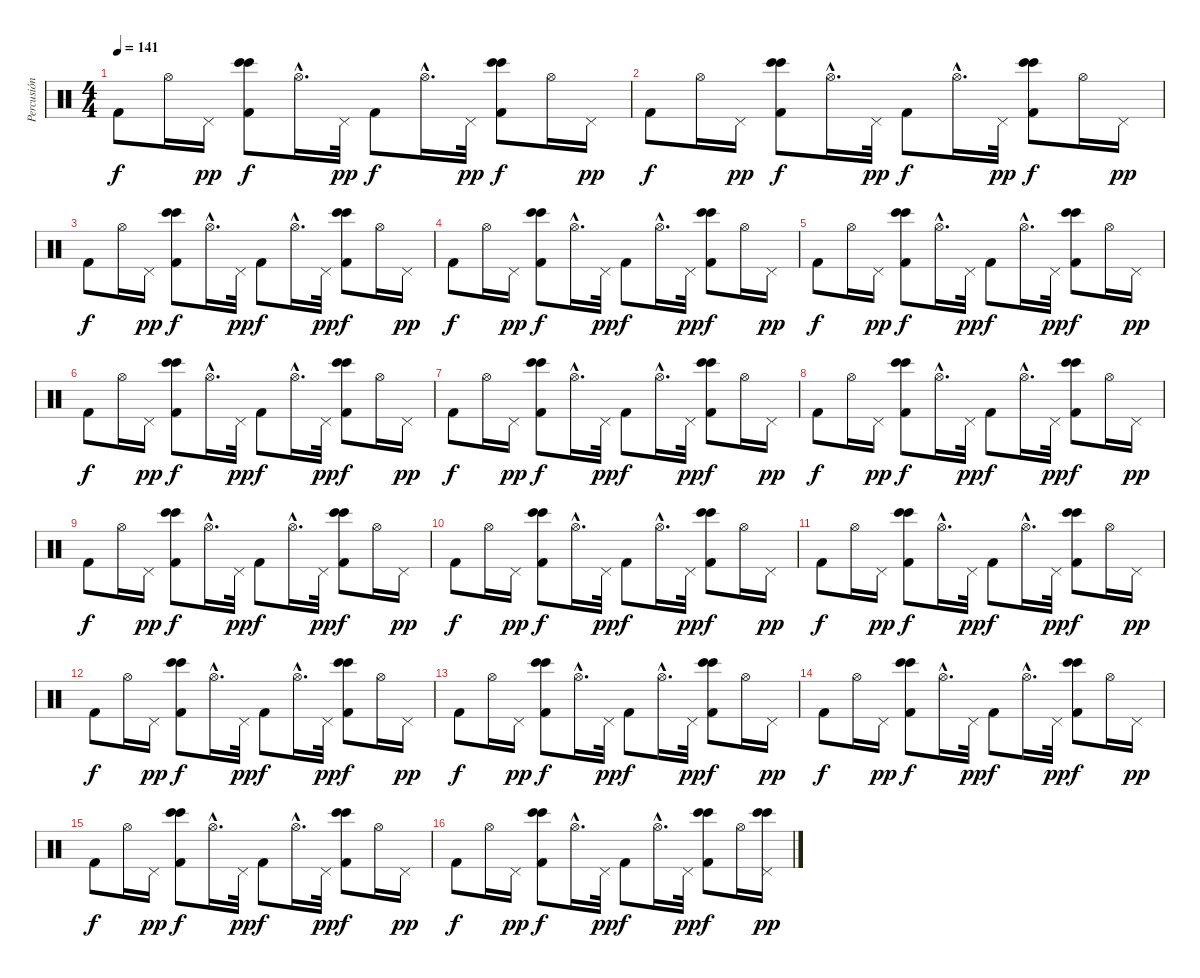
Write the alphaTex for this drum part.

\track ("Percusión" "Percusión") {instrument percussion}
\staff {score}
\articulation defaults
\ts (4 4)
\tempo 141
\clef neutral
\ks c "Kick (hit) 2".8{dy f} "Hi-Hat (open)".16 "Pedal Hi-Hat (hit)".16{dy pp}
("Bongo High (hit)" "Bongo High (hit)" "Kick (hit) 2").8{dy f} "Hi-Hat (open)"{hac}.16{d} "Pedal Hi-Hat (hit)".32{dy pp} "Kick (hit) 2".8{dy f} "Hi-Hat (open)"{hac}.16{d} "Pedal Hi-Hat (hit)".32{dy pp} ("Bongo High (hit)" "Bongo High (hit)" "Kick (hit) 2").8{dy f} "Hi-Hat (open)".16 "Pedal Hi-Hat (hit)".16{dy pp} |
"Kick (hit) 2".8{dy f} "Hi-Hat (open)".16 "Pedal Hi-Hat (hit)".16{dy pp} ("Bongo High (hit)" "Bongo High (hit)" "Kick (hit) 2").8{dy f} "Hi-Hat (open)"{hac}.16{d} "Pedal Hi-Hat (hit)".32{dy pp} "Kick (hit) 2".8{dy f} "Hi-Hat (open)"{hac}.16{d} "Pedal Hi-Hat (hit)".32{dy pp} ("Bongo High (hit)" "Bongo High (hit)" "Kick (hit) 2").8{dy f} "Hi-Hat (open)".16 "Pedal Hi-Hat (hit)".16{dy pp} |
"Kick (hit) 2".8{dy f} "Hi-Hat (open)".16 "Pedal Hi-Hat (hit)".16{dy pp} ("Bongo High (hit)" "Bongo High (hit)" "Kick (hit) 2").8{dy f} "Hi-Hat (open)"{hac}.16{d} "Pedal Hi-Hat (hit)".32{dy pp} "Kick (hit) 2".8{dy f} "Hi-Hat (open)"{hac}.16{d} "Pedal Hi-Hat (hit)".32{dy pp} ("Bongo High (hit)" "Bongo High (hit)" "Kick (hit) 2").8{dy f} "Hi-Hat (open)".16 "Pedal Hi-Hat (hit)".16{dy pp} |
"Kick (hit) 2".8{dy f} "Hi-Hat (open)".16 "Pedal Hi-Hat (hit)".16{dy pp} ("Bongo High (hit)" "Bongo High (hit)" "Kick (hit) 2").8{dy f} "Hi-Hat (open)"{hac}.16{d} "Pedal Hi-Hat (hit)".32{dy pp} "Kick (hit) 2".8{dy f} "Hi-Hat (open)"{hac}.16{d} "Pedal Hi-Hat (hit)".32{dy pp} ("Bongo High (hit)" "Bongo High (hit)" "Kick (hit) 2").8{dy f} "Hi-Hat (open)".16 "Pedal Hi-Hat (hit)".16{dy pp} |
"Kick (hit) 2".8{dy f} "Hi-Hat (open)".16 "Pedal Hi-Hat (hit)".16{dy pp} ("Bongo High (hit)" "Bongo High (hit)" "Kick (hit) 2").8{dy f} "Hi-Hat (open)"{hac}.16{d} "Pedal Hi-Hat (hit)".32{dy pp} "Kick (hit) 2".8{dy f} "Hi-Hat (open)"{hac}.16{d} "Pedal Hi-Hat (hit)".32{dy pp} ("Bongo High (hit)" "Bongo High (hit)" "Kick (hit) 2").8{dy f} "Hi-Hat (open)".16 "Pedal Hi-Hat (hit)".16{dy pp} |
"Kick (hit) 2".8{dy f} "Hi-Hat (open)".16 "Pedal Hi-Hat (hit)".16{dy pp} ("Bongo High (hit)" "Bongo High (hit)" "Kick (hit) 2").8{dy f} "Hi-Hat (open)"{hac}.16{d} "Pedal Hi-Hat (hit)".32{dy pp} "Kick (hit) 2".8{dy f} "Hi-Hat (open)"{hac}.16{d} "Pedal Hi-Hat (hit)".32{dy pp} ("Bongo High (hit)" "Bongo High (hit)" "Kick (hit) 2").8{dy f} "Hi-Hat (open)".16 "Pedal Hi-Hat (hit)".16{dy pp} |
"Kick (hit) 2".8{dy f} "Hi-Hat (open)".16 "Pedal Hi-Hat (hit)".16{dy pp} ("Bongo High (hit)" "Bongo High (hit)" "Kick (hit) 2").8{dy f} "Hi-Hat (open)"{hac}.16{d} "Pedal Hi-Hat (hit)".32{dy pp} "Kick (hit) 2".8{dy f} "Hi-Hat (open)"{hac}.16{d} "Pedal Hi-Hat (hit)".32{dy pp} ("Bongo High (hit)" "Bongo High (hit)" "Kick (hit) 2").8{dy f} "Hi-Hat (open)".16 "Pedal Hi-Hat (hit)".16{dy pp} |
"Kick (hit) 2".8{dy f} "Hi-Hat (open)".16 "Pedal Hi-Hat (hit)".16{dy pp} ("Bongo High (hit)" "Bongo High (hit)" "Kick (hit) 2").8{dy f} "Hi-Hat (open)"{hac}.16{d} "Pedal Hi-Hat (hit)".32{dy pp} "Kick (hit) 2".8{dy f} "Hi-Hat (open)"{hac}.16{d} "Pedal Hi-Hat (hit)".32{dy pp} ("Bongo High (hit)" "Bongo High (hit)" "Kick (hit) 2").8{dy f} "Hi-Hat (open)".16 "Pedal Hi-Hat (hit)".16{dy pp} |
"Kick (hit) 2".8{dy f} "Hi-Hat (open)".16 "Pedal Hi-Hat (hit)".16{dy pp} ("Bongo High (hit)" "Bongo High (hit)" "Kick (hit) 2").8{dy f} "Hi-Hat (open)"{hac}.16{d} "Pedal Hi-Hat (hit)".32{dy pp} "Kick (hit) 2".8{dy f} "Hi-Hat (open)"{hac}.16{d} "Pedal Hi-Hat (hit)".32{dy pp} ("Bongo High (hit)" "Bongo High (hit)" "Kick (hit) 2").8{dy f} "Hi-Hat (open)".16 "Pedal Hi-Hat (hit)".16{dy pp} |
"Kick (hit) 2".8{dy f} "Hi-Hat (open)".16 "Pedal Hi-Hat (hit)".16{dy pp} ("Bongo High (hit)" "Bongo High (hit)" "Kick (hit) 2").8{dy f} "Hi-Hat (open)"{hac}.16{d} "Pedal Hi-Hat (hit)".32{dy pp} "Kick (hit) 2".8{dy f} "Hi-Hat (open)"{hac}.16{d} "Pedal Hi-Hat (hit)".32{dy pp} ("Bongo High (hit)" "Bongo High (hit)" "Kick (hit) 2").8{dy f} "Hi-Hat (open)".16 "Pedal Hi-Hat (hit)".16{dy pp} |
"Kick (hit) 2".8{dy f} "Hi-Hat (open)".16 "Pedal Hi-Hat (hit)".16{dy pp} ("Bongo High (hit)" "Bongo High (hit)" "Kick (hit) 2").8{dy f} "Hi-Hat (open)"{hac}.16{d} "Pedal Hi-Hat (hit)".32{dy pp} "Kick (hit) 2".8{dy f} "Hi-Hat (open)"{hac}.16{d} "Pedal Hi-Hat (hit)".32{dy pp} ("Bongo High (hit)" "Bongo High (hit)" "Kick (hit) 2").8{dy f} "Hi-Hat (open)".16 "Pedal Hi-Hat (hit)".16{dy pp} |
"Kick (hit) 2".8{dy f} "Hi-Hat (open)".16 "Pedal Hi-Hat (hit)".16{dy pp} ("Bongo High (hit)" "Bongo High (hit)" "Kick (hit) 2").8{dy f} "Hi-Hat (open)"{hac}.16{d} "Pedal Hi-Hat (hit)".32{dy pp} "Kick (hit) 2".8{dy f} "Hi-Hat (open)"{hac}.16{d} "Pedal Hi-Hat (hit)".32{dy pp} ("Bongo High (hit)" "Bongo High (hit)" "Kick (hit) 2").8{dy f} "Hi-Hat (open)".16 "Pedal Hi-Hat (hit)".16{dy pp} |
"Kick (hit) 2".8{dy f} "Hi-Hat (open)".16 "Pedal Hi-Hat (hit)".16{dy pp} ("Bongo High (hit)" "Bongo High (hit)" "Kick (hit) 2").8{dy f} "Hi-Hat (open)"{hac}.16{d} "Pedal Hi-Hat (hit)".32{dy pp} "Kick (hit) 2".8{dy f} "Hi-Hat (open)"{hac}.16{d} "Pedal Hi-Hat (hit)".32{dy pp} ("Bongo High (hit)" "Bongo High (hit)" "Kick (hit) 2").8{dy f} "Hi-Hat (open)".16 "Pedal Hi-Hat (hit)".16{dy pp} |
"Kick (hit) 2".8{dy f} "Hi-Hat (open)".16 "Pedal Hi-Hat (hit)".16{dy pp} ("Bongo High (hit)" "Bongo High (hit)" "Kick (hit) 2").8{dy f} "Hi-Hat (open)"{hac}.16{d} "Pedal Hi-Hat (hit)".32{dy pp} "Kick (hit) 2".8{dy f} "Hi-Hat (open)"{hac}.16{d} "Pedal Hi-Hat (hit)".32{dy pp} ("Bongo High (hit)" "Bongo High (hit)" "Kick (hit) 2").8{dy f} "Hi-Hat (open)".16 "Pedal Hi-Hat (hit)".16{dy pp} |
"Kick (hit) 2".8{dy f} "Hi-Hat (open)".16 "Pedal Hi-Hat (hit)".16{dy pp} ("Bongo High (hit)" "Bongo High (hit)" "Kick (hit) 2").8{dy f} "Hi-Hat (open)"{hac}.16{d} "Pedal Hi-Hat (hit)".32{dy pp} "Kick (hit) 2".8{dy f} "Hi-Hat (open)"{hac}.16{d} "Pedal Hi-Hat (hit)".32{dy pp} ("Bongo High (hit)" "Bongo High (hit)" "Kick (hit) 2").8{dy f} "Hi-Hat (open)".16 "Pedal Hi-Hat (hit)".16{dy pp} |
"Kick (hit) 2".8{dy f} "Hi-Hat (open)".16 "Pedal Hi-Hat (hit)".16{dy pp} ("Bongo High (hit)" "Bongo High (hit)" "Kick (hit) 2").8{dy f} "Hi-Hat (open)"{hac}.16{d} "Pedal Hi-Hat (hit)".32{dy pp} "Kick (hit) 2".8{dy f} "Hi-Hat (open)"{hac}.16{d} "Pedal Hi-Hat (hit)".32{dy pp} ("Bongo High (hit)" "Bongo High (hit)" "Kick (hit) 2").8{dy f} "Hi-Hat (open)".16 ("Pedal Hi-Hat (hit)" "Bongo High (hit)" "Bongo High (hit)").16{dy pp}
